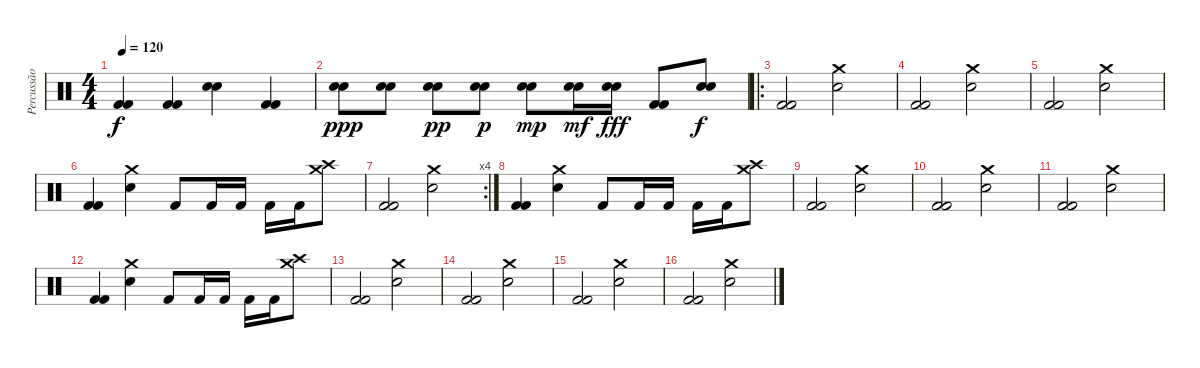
\track ("Percussão" "Percussão") {instrument percussion}
\staff {score}
\articulation defaults
\ts (4 4)
\tempo 120
\clef neutral
\ks c
("Kick (hit) 2" "Kick (hit) 2").4{dy f} ("Kick (hit) 2" "Kick (hit) 2").4 ("Snare (hit) 2" "Snare (hit) 2").4 ("Kick (hit) 2" "Kick (hit) 2").4 |
("Snare (hit) 2" "Snare (hit) 2").8{dy ppp} ("Snare (hit) 2" "Snare (hit) 2").8 ("Snare (hit) 2" "Snare (hit) 2").8{dy pp} ("Snare (hit) 2" "Snare (hit) 2").8{dy p} ("Snare (hit) 2" "Snare (hit) 2").8{dy mp} ("Snare (hit) 2" "Snare (hit) 2").16{dy mf} ("Snare (hit) 2" "Snare (hit) 2").16{dy fff} ("Kick (hit) 2" "Kick (hit) 2").8 ("Snare (hit) 2" "Snare (hit) 2").8{dy f} |
\ro
("Kick (hit) 2" "Kick (hit) 2").2 ("Snare (hit) 2" "Crash medium (hit)").2 |
("Kick (hit) 2" "Kick (hit) 2").2 ("Snare (hit) 2" "Crash medium (hit)").2 |
("Kick (hit) 2" "Kick (hit) 2").2 ("Snare (hit) 2" "Crash medium (hit)").2 |
("Kick (hit) 2" "Kick (hit) 2").4 ("Snare (hit) 2" "Crash medium (hit)").4 "Kick (hit) 2".8 "Kick (hit) 2".16 "Kick (hit) 2".16 "Kick (hit) 2".16 "Kick (hit) 2".16 ("Crash high (hit)" "Crash medium (hit)").8 |
\rc 4
("Kick (hit) 2" "Kick (hit) 2").2 ("Snare (hit) 2" "Crash medium (hit)").2 |
("Kick (hit) 2" "Kick (hit) 2").4 ("Snare (hit) 2" "Crash medium (hit)").4 "Kick (hit) 2".8 "Kick (hit) 2".16 "Kick (hit) 2".16 "Kick (hit) 2".16 "Kick (hit) 2".16 ("Crash high (hit)" "Crash medium (hit)").8 |
("Kick (hit) 2" "Kick (hit) 2").2 ("Snare (hit) 2" "Crash medium (hit)").2 |
("Kick (hit) 2" "Kick (hit) 2").2 ("Snare (hit) 2" "Crash medium (hit)").2 |
("Kick (hit) 2" "Kick (hit) 2").2 ("Snare (hit) 2" "Crash medium (hit)").2 |
("Kick (hit) 2" "Kick (hit) 2").4 ("Snare (hit) 2" "Crash medium (hit)").4 "Kick (hit) 2".8 "Kick (hit) 2".16 "Kick (hit) 2".16 "Kick (hit) 2".16 "Kick (hit) 2".16 ("Crash high (hit)" "Crash medium (hit)").8 |
("Kick (hit) 2" "Kick (hit) 2").2 ("Snare (hit) 2" "Crash medium (hit)").2 |
("Kick (hit) 2" "Kick (hit) 2").2 ("Snare (hit) 2" "Crash medium (hit)").2 |
("Kick (hit) 2" "Kick (hit) 2").2 ("Snare (hit) 2" "Crash medium (hit)").2 |
("Kick (hit) 2" "Kick (hit) 2").2 ("Snare (hit) 2" "Crash medium (hit)").2
